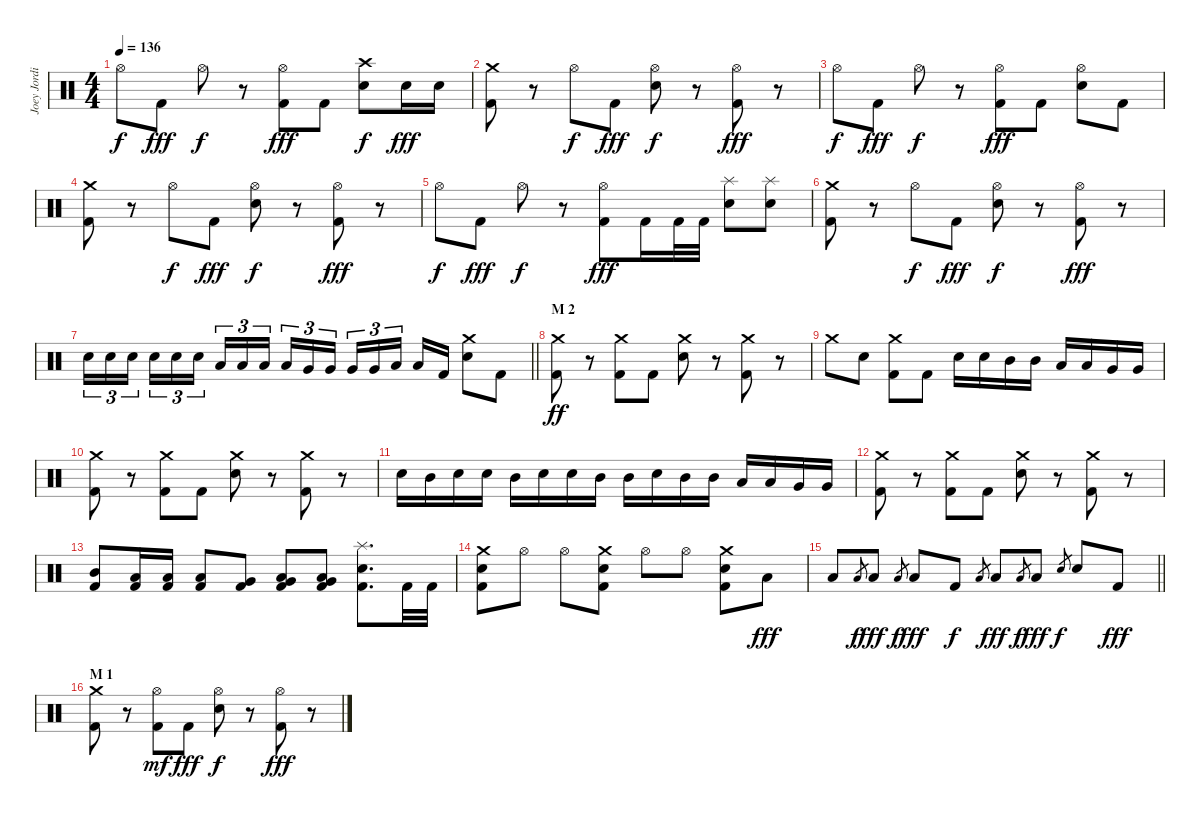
\track ("Joey Jordison" "Joey Jordi") {instrument percussion}
\staff {score}
\articulation defaults
\ts (4 4)
\tempo 136
\clef neutral
\ks c "Hi-Hat (open)".8{dy f} "Kick (hit) 2".8{dy fff} "Hi-Hat (open)".8{dy f}
r.8 ("Hi-Hat (open)" "Kick (hit) 2").8{dy fff} "Kick (hit) 2".8 ("Crash high (hit)" "Electric Snare (hit)").8{dy f} "Electric Snare (hit)".16{dy fff} "Electric Snare (hit)".16 |
("Crash medium (hit)" "Kick (hit) 2").8 r.8 "Hi-Hat (open)".8{dy f} "Kick (hit) 2".8{dy fff} ("Hi-Hat (open)" "Electric Snare (hit)").8{dy f} r.8 ("Hi-Hat (open)" "Kick (hit) 2").8{dy fff} r.8 |
"Hi-Hat (open)".8{dy f} "Kick (hit) 2".8{dy fff} "Hi-Hat (open)".8{dy f} r.8 ("Hi-Hat (open)" "Kick (hit) 2").8{dy fff} "Kick (hit) 2".8 ("Hi-Hat (open)" "Electric Snare (hit)").8 "Kick (hit) 2".8 |
("Crash medium (hit)" "Kick (hit) 2").8 r.8 "Hi-Hat (open)".8{dy f} "Kick (hit) 2".8{dy fff} ("Hi-Hat (open)" "Electric Snare (hit)").8{dy f} r.8 ("Hi-Hat (open)" "Kick (hit) 2").8{dy fff} r.8 |
"Hi-Hat (open)".8{dy f} "Kick (hit) 2".8{dy fff} "Hi-Hat (open)".8{dy f} r.8 ("Hi-Hat (open)" "Kick (hit) 2").8{dy fff} "Kick (hit) 2".16 "Kick (hit) 2".32 "Kick (hit) 2".32 ("Splash (hit)" "Electric Snare (hit)").8 ("Splash (hit)" "Electric Snare (hit)").8 |
("Crash medium (hit)" "Kick (hit) 2").8 r.8 "Hi-Hat (open)".8{dy f} "Kick (hit) 2".8{dy fff} ("Hi-Hat (open)" "Electric Snare (hit)").8{dy f} r.8 ("Hi-Hat (open)" "Kick (hit) 2").8{dy fff} r.8 |
\barLineRight lightlight "Electric Snare (hit)".16{tu (3 2)} "Electric Snare (hit)".16{tu (3 2)} "Electric Snare (hit)".16{tu (3 2) beam splitsecondary} "Electric Snare (hit)".16{tu (3 2)} "Electric Snare (hit)".16{tu (3 2)} "Electric Snare (hit)".16{tu (3 2)} "Low Tom (hit)".16{tu (3 2)} "Low Tom (hit)".16{tu (3 2)} "Low Tom (hit)".16{tu (3 2) beam splitsecondary} "Low Tom (hit)".16{tu (3 2)} "Very Low Tom (hit)".16{tu (3 2)} "Very Low Tom (hit)".16{tu (3 2)} "Very Low Tom (hit)".16{tu (3 2)} "Very Low Tom (hit)".16{tu (3 2)} "Low Floor Tom (hit)".16{tu (3 2) beam splitsecondary} "Low Floor Tom (hit)".16 "Kick (hit) 2".16
("Crash medium (hit)" "Electric Snare (hit)").8 "Kick (hit) 2".8 |
\section ("" "M 2")
("Crash medium (hit)" "Kick (hit) 2").8{dy ff} r.8 ("Crash medium (hit)" "Kick (hit) 2").8 "Kick (hit) 2".8 ("Crash medium (hit)" "Electric Snare (hit)").8 r.8 ("Crash medium (hit)" "Kick (hit) 2").8 r.8 |
"Crash medium (hit)".8 "Electric Snare (hit)".8 ("Crash medium (hit)" "Kick (hit) 2").8 "Kick (hit) 2".8 "Electric Snare (hit)".16 "Electric Snare (hit)".16 "Mid Tom (hit)".16 "Mid Tom (hit)".16 "Low Tom (hit)".16 "Low Tom (hit)".16 "Very Low Tom (hit)".16 "Very Low Tom (hit)".16 |
("Crash medium (hit)" "Kick (hit) 2").8 r.8 ("Crash medium (hit)" "Kick (hit) 2").8 "Kick (hit) 2".8 ("Crash medium (hit)" "Electric Snare (hit)").8 r.8 ("Crash medium (hit)" "Kick (hit) 2").8 r.8 |
"Electric Snare (hit)".16 "Mid Tom (hit)".16 "Electric Snare (hit)".16 "Electric Snare (hit)".16 "Mid Tom (hit)".16 "Electric Snare (hit)".16 "Electric Snare (hit)".16 "Mid Tom (hit)".16 "Mid Tom (hit)".16 "Electric Snare (hit)".16 "Mid Tom (hit)".16 "Mid Tom (hit)".16 "Low Tom (hit)".16 "Low Tom (hit)".16 "Very Low Tom (hit)".16 "Very Low Tom (hit)".16 |
("Crash medium (hit)" "Kick (hit) 2").8 r.8 ("Crash medium (hit)" "Kick (hit) 2").8 "Kick (hit) 2".8 ("Crash medium (hit)" "Electric Snare (hit)").8 r.8 ("Crash medium (hit)" "Kick (hit) 2").8 r.8 |
("Mid Tom (hit)" "Kick (hit) 2").8 ("Low Tom (hit)" "Kick (hit) 2").16 ("Low Tom (hit)" "Kick (hit) 2").16 ("Low Tom (hit)" "Kick (hit) 2").8 ("Very Low Tom (hit)" "Kick (hit) 2").8 ("Very Low Tom (hit)" "Low Floor Tom (hit)" "Kick (hit) 2").8 ("Very Low Tom (hit)" "Low Floor Tom (hit)" "Kick (hit) 2").8 ("Splash (hit)" "Electric Snare (hit)" "Kick (hit) 2").8{d} "Kick (hit) 2".32 "Kick (hit) 2".32 |
("Crash medium (hit)" "Electric Snare (hit)" "Kick (hit) 2").8 "Hi-Hat (open)".8 "Hi-Hat (open)".8 ("Crash medium (hit)" "Electric Snare (hit)" "Kick (hit) 2").8 "Hi-Hat (open)".8 "Hi-Hat (open)".8 ("Crash medium (hit)" "Electric Snare (hit)" "Kick (hit) 2").8 "Low Tom (hit)".8{dy fff} |
\barLineRight lightlight "Low Tom (hit)".8 "Low Floor Tom (hit)".8{gr dy f} "Low Floor Tom (hit)".8{dy fff} "Low Floor Tom (hit)".8{gr dy f} "Low Floor Tom (hit)".8{dy fff} "Kick (hit) 2".8{dy f} "Low Floor Tom (hit)".8{gr} "Low Floor Tom (hit)".8{dy fff} "Low Floor Tom (hit)".8{gr dy f} "Low Floor Tom (hit)".8{dy fff} "Electric Snare (hit)".8{gr dy f} "Electric Snare (hit)".8 "Kick (hit) 2".8{dy fff}
|
\section ("" "M 1")
("Crash medium (hit)" "Kick (hit) 2").8 r.8 ("Hi-Hat (open)" "Kick (hit) 2").8{dy mf} "Kick (hit) 2".8{dy fff} ("Hi-Hat (open)" "Electric Snare (hit)").8{dy f} r.8 ("Hi-Hat (open)" "Kick (hit) 2").8{dy fff} r.8
